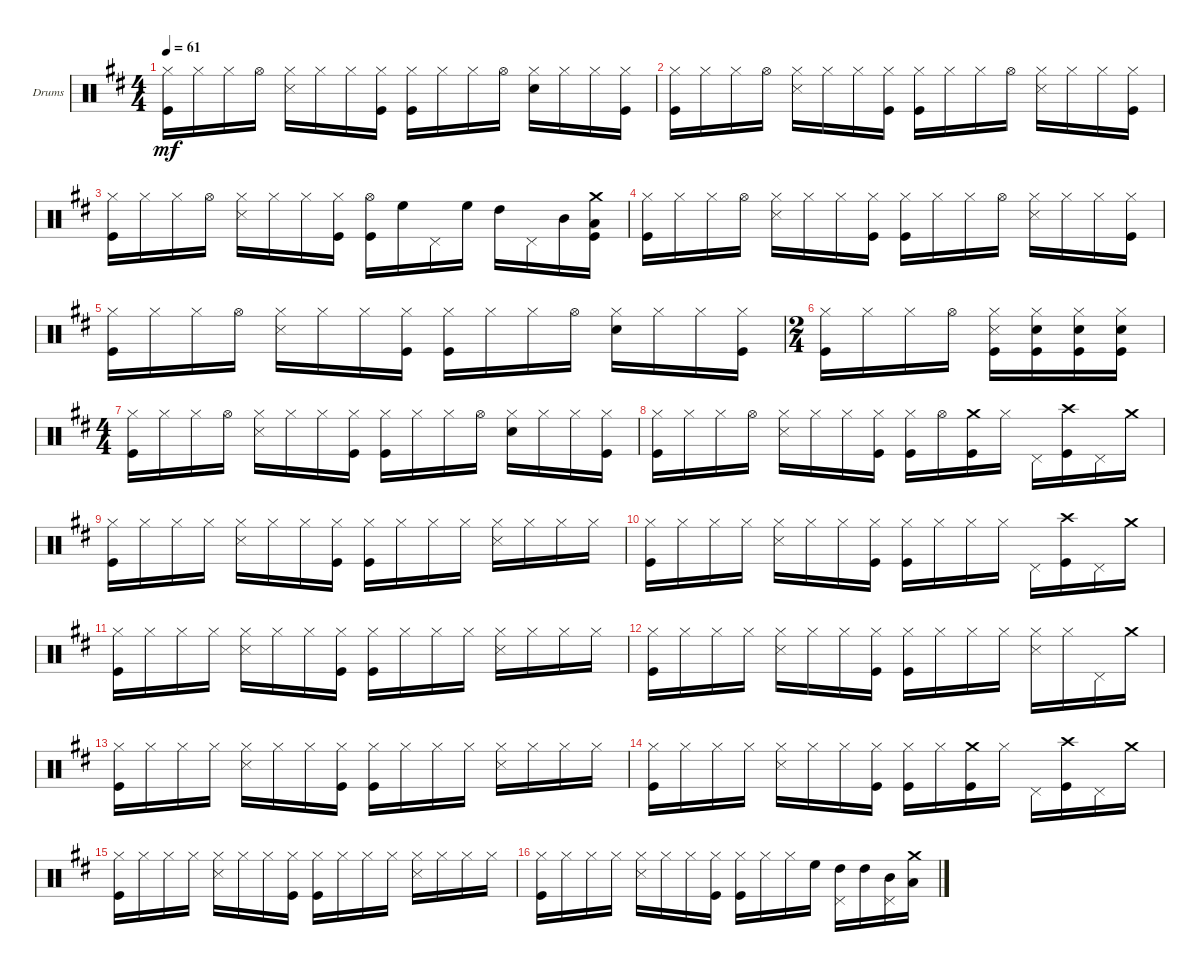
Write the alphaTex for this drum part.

\defaultSystemsLayout 4
\bracketExtendMode groupsimilarinstruments
\firstSystemTrackNameOrientation horizontal
\otherSystemsTrackNameOrientation horizontal
\track ("Drumkit" "Drums") {multiBarRest instrument percussion}
\staff {score}
\articulation defaults
\ts (4 4)
\tempo 61
\clef neutral
\scale
0.333333
\ks d
("Hi-Hat (closed)" "Kick (hit)").16{dy mf} "Hi-Hat (closed)".16 "Hi-Hat (closed)".16 "Hi-Hat (open)".16 ("Hi-Hat (closed)" "Snare (side stick) 3").16 "Hi-Hat (closed)".16 "Hi-Hat (closed)".16 ("Hi-Hat (closed)" "Kick (hit)").16 ("Hi-Hat (closed)" "Kick (hit)").16 "Hi-Hat (closed)".16 "Hi-Hat (closed)".16 "Hi-Hat (open)".16 ("Hi-Hat (closed)" "Snare (hit) 2").16 "Hi-Hat (closed)".16 "Hi-Hat (closed)".16 ("Hi-Hat (closed)" "Kick (hit)").16 |
\scale
0.333333 ("Hi-Hat (closed)" "Kick (hit)").16 "Hi-Hat (closed)".16 "Hi-Hat (closed)".16 "Hi-Hat (open)".16 ("Hi-Hat (closed)" "Snare (side stick) 3").16 "Hi-Hat (closed)".16 "Hi-Hat (closed)".16 ("Hi-Hat (closed)" "Kick (hit)").16 ("Hi-Hat (closed)" "Kick (hit)").16 "Hi-Hat (closed)".16 "Hi-Hat (closed)".16 "Hi-Hat (open)".16 ("Hi-Hat (closed)" "Snare (side stick) 3").16 "Hi-Hat (closed)".16 "Hi-Hat (closed)".16 ("Hi-Hat (closed)" "Kick (hit)").16 |
\scale
0.333333 ("Hi-Hat (closed)" "Kick (hit)").16 "Hi-Hat (closed)".16 "Hi-Hat (closed)".16 "Hi-Hat (open)".16 ("Hi-Hat (closed)" "Snare (side stick) 3").16 "Hi-Hat (closed)".16 "Hi-Hat (closed)".16 ("Kick (hit)" "Hi-Hat (closed)").16 ("Kick (hit)" "Hi-Hat (open)").16 "High Floor Tom (hit)".16 "Pedal Hi-Hat (hit)".16 "High Floor Tom (hit)".16 "High Tom (hit)".16 "Pedal Hi-Hat (hit)".16 "Mid Tom (hit)".16 ("Kick (hit)" "Low Tom (hit)" "Crash medium (hit)").16 |
\scale
0.333333 ("Hi-Hat (closed)" "Kick (hit)").16 "Hi-Hat (closed)".16 "Hi-Hat (closed)".16 "Hi-Hat (open)".16 ("Hi-Hat (closed)" "Snare (side stick) 3").16 "Hi-Hat (closed)".16 "Hi-Hat (closed)".16 ("Hi-Hat (closed)" "Kick (hit)").16 ("Hi-Hat (closed)" "Kick (hit)").16 "Hi-Hat (closed)".16 "Hi-Hat (closed)".16 "Hi-Hat (open)".16 ("Hi-Hat (closed)" "Snare (side stick) 3").16 "Hi-Hat (closed)".16 "Hi-Hat (closed)".16 ("Hi-Hat (closed)" "Kick (hit)").16 |
\scale
0.333333 ("Hi-Hat (closed)" "Kick (hit)").16 "Hi-Hat (closed)".16 "Hi-Hat (closed)".16 "Hi-Hat (open)".16 ("Hi-Hat (closed)" "Snare (side stick) 3").16 "Hi-Hat (closed)".16 "Hi-Hat (closed)".16 ("Hi-Hat (closed)" "Kick (hit)").16 ("Hi-Hat (closed)" "Kick (hit)").16 "Hi-Hat (closed)".16 "Hi-Hat (closed)".16 "Hi-Hat (open)".16 ("Hi-Hat (closed)" "Snare (hit) 2").16 "Hi-Hat (closed)".16 "Hi-Hat (closed)".16 ("Hi-Hat (closed)" "Kick (hit)").16 |
\ts (2 4)
\scale
0.404682 ("Hi-Hat (closed)" "Kick (hit)").16 "Hi-Hat (closed)".16 "Hi-Hat (closed)".16 "Hi-Hat (open)".16 ("Hi-Hat (closed)" "Snare (side stick) 3" "Kick (hit)").16 ("Hi-Hat (closed)" "Kick (hit)" "Snare (hit) 2").16 ("Hi-Hat (closed)" "Kick (hit)" "Snare (hit) 2").16 ("Hi-Hat (closed)" "Kick (hit)" "Snare (hit) 2").16 |
\ts (4 4)
\scale
0.404682 ("Hi-Hat (closed)" "Kick (hit)").16 "Hi-Hat (closed)".16 "Hi-Hat (closed)".16 "Hi-Hat (open)".16 ("Hi-Hat (closed)" "Snare (side stick) 3").16 "Hi-Hat (closed)".16 "Hi-Hat (closed)".16 ("Hi-Hat (closed)" "Kick (hit)").16 ("Hi-Hat (closed)" "Kick (hit)").16 "Hi-Hat (closed)".16 "Hi-Hat (closed)".16 "Hi-Hat (open)".16 ("Hi-Hat (closed)" "Snare (hit) 2").16 "Hi-Hat (closed)".16 "Hi-Hat (closed)".16 ("Hi-Hat (closed)" "Kick (hit)").16 |
\scale
0.190635 ("Hi-Hat (closed)" "Kick (hit)").16 "Hi-Hat (closed)".16 "Hi-Hat (closed)".16 "Hi-Hat (open)".16 ("Hi-Hat (closed)" "Snare (side stick) 3").16 "Hi-Hat (closed)".16 "Hi-Hat (closed)".16 ("Kick (hit)" "Hi-Hat (closed)").16 ("Kick (hit)" "Hi-Hat (closed)").16 "Hi-Hat (open)".16 ("Kick (hit)" "Crash medium (hit)").16 "Hi-Hat (closed)".16 "Pedal Hi-Hat (hit)".16 ("Kick (hit)" "Crash high (hit)").16 "Pedal Hi-Hat (hit)".16 "Crash medium (hit)".16 |
\scale
0.333333 ("Kick (hit)" "Hi-Hat (closed)").16 "Hi-Hat (closed)".16 "Hi-Hat (closed)".16 "Hi-Hat (closed)".16 ("Snare (side stick) 3" "Hi-Hat (closed)").16 "Hi-Hat (closed)".16 "Hi-Hat (closed)".16 ("Kick (hit)" "Hi-Hat (closed)").16 ("Kick (hit)" "Hi-Hat (closed)").16 "Hi-Hat (closed)".16 "Hi-Hat (closed)".16 "Hi-Hat (closed)".16 ("Snare (side stick) 3" "Hi-Hat (closed)").16 "Hi-Hat (closed)".16 "Hi-Hat (closed)".16 "Hi-Hat (closed)".16 |
\scale
0.333333 ("Kick (hit)" "Hi-Hat (closed)").16 "Hi-Hat (closed)".16 "Hi-Hat (closed)".16 "Hi-Hat (closed)".16 ("Snare (side stick) 3" "Hi-Hat (closed)").16 "Hi-Hat (closed)".16 "Hi-Hat (closed)".16 ("Kick (hit)" "Hi-Hat (closed)").16 ("Kick (hit)" "Hi-Hat (closed)").16 "Hi-Hat (closed)".16 "Hi-Hat (closed)".16 "Hi-Hat (closed)".16 "Pedal Hi-Hat (hit)".16 ("Kick (hit)" "Crash high (hit)").16 "Pedal Hi-Hat (hit)".16 "Crash medium (hit)".16 |
\scale
0.333333 ("Kick (hit)" "Hi-Hat (closed)").16 "Hi-Hat (closed)".16 "Hi-Hat (closed)".16 "Hi-Hat (closed)".16 ("Snare (side stick) 3" "Hi-Hat (closed)").16 "Hi-Hat (closed)".16 "Hi-Hat (closed)".16 ("Kick (hit)" "Hi-Hat (closed)").16 ("Kick (hit)" "Hi-Hat (closed)").16 "Hi-Hat (closed)".16 "Hi-Hat (closed)".16 "Hi-Hat (closed)".16 ("Snare (side stick) 3" "Hi-Hat (closed)").16 "Hi-Hat (closed)".16 "Hi-Hat (closed)".16 "Hi-Hat (closed)".16 |
\scale
0.333333 ("Kick (hit)" "Hi-Hat (closed)").16 "Hi-Hat (closed)".16 "Hi-Hat (closed)".16 "Hi-Hat (closed)".16 ("Snare (side stick) 3" "Hi-Hat (closed)").16 "Hi-Hat (closed)".16 "Hi-Hat (closed)".16 ("Kick (hit)" "Hi-Hat (closed)").16 ("Kick (hit)" "Hi-Hat (closed)").16 "Hi-Hat (closed)".16 "Hi-Hat (closed)".16 "Hi-Hat (closed)".16 ("Snare (side stick) 3" "Hi-Hat (closed)").16 "Hi-Hat (closed)".16 "Pedal Hi-Hat (hit)".16 "Crash medium (hit)".16 |
\scale
0.333333 ("Kick (hit)" "Hi-Hat (closed)").16 "Hi-Hat (closed)".16 "Hi-Hat (closed)".16 "Hi-Hat (closed)".16 ("Snare (side stick) 3" "Hi-Hat (closed)").16 "Hi-Hat (closed)".16 "Hi-Hat (closed)".16 ("Kick (hit)" "Hi-Hat (closed)").16 ("Kick (hit)" "Hi-Hat (closed)").16 "Hi-Hat (closed)".16 "Hi-Hat (closed)".16 "Hi-Hat (closed)".16 ("Snare (side stick) 3" "Hi-Hat (closed)").16 "Hi-Hat (closed)".16 "Hi-Hat (closed)".16 "Hi-Hat (closed)".16 |
\scale
0.333333 ("Kick (hit)" "Hi-Hat (closed)").16 "Hi-Hat (closed)".16 "Hi-Hat (closed)".16 "Hi-Hat (closed)".16 ("Snare (side stick) 3" "Hi-Hat (closed)").16 "Hi-Hat (closed)".16 "Hi-Hat (closed)".16 ("Kick (hit)" "Hi-Hat (closed)").16 ("Kick (hit)" "Hi-Hat (closed)").16 "Hi-Hat (closed)".16 ("Kick (hit)" "Crash medium (hit)").16 "Hi-Hat (closed)".16 "Pedal Hi-Hat (hit)".16 ("Kick (hit)" "Crash high (hit)").16 "Pedal Hi-Hat (hit)".16 "Crash medium (hit)".16 |
\scale
0.333333 ("Kick (hit)" "Hi-Hat (closed)").16 "Hi-Hat (closed)".16 "Hi-Hat (closed)".16 "Hi-Hat (closed)".16 ("Snare (side stick) 3" "Hi-Hat (closed)").16 "Hi-Hat (closed)".16 "Hi-Hat (closed)".16 ("Kick (hit)" "Hi-Hat (closed)").16 ("Kick (hit)" "Hi-Hat (closed)").16 "Hi-Hat (closed)".16 "Hi-Hat (closed)".16 "Hi-Hat (closed)".16 ("Snare (side stick) 3" "Hi-Hat (closed)").16 "Hi-Hat (closed)".16 "Hi-Hat (closed)".16 "Hi-Hat (closed)".16 |
\scale
0.333333 ("Kick (hit)" "Hi-Hat (closed)").16 "Hi-Hat (closed)".16 "Hi-Hat (closed)".16 "Hi-Hat (closed)".16 ("Snare (side stick) 3" "Hi-Hat (closed)").16 "Hi-Hat (closed)".16 "Hi-Hat (closed)".16 ("Kick (hit)" "Hi-Hat (closed)").16 ("Kick (hit)" "Hi-Hat (closed)").16 "Hi-Hat (closed)".16 "Hi-Hat (closed)".16 "High Floor Tom (hit)".16 ("Pedal Hi-Hat (hit)" "High Tom (hit)").16 "High Tom (hit)".16 ("Pedal Hi-Hat (hit)" "Mid Tom (hit)").16 ("Low Tom (hit)" "Crash medium (hit)").16
